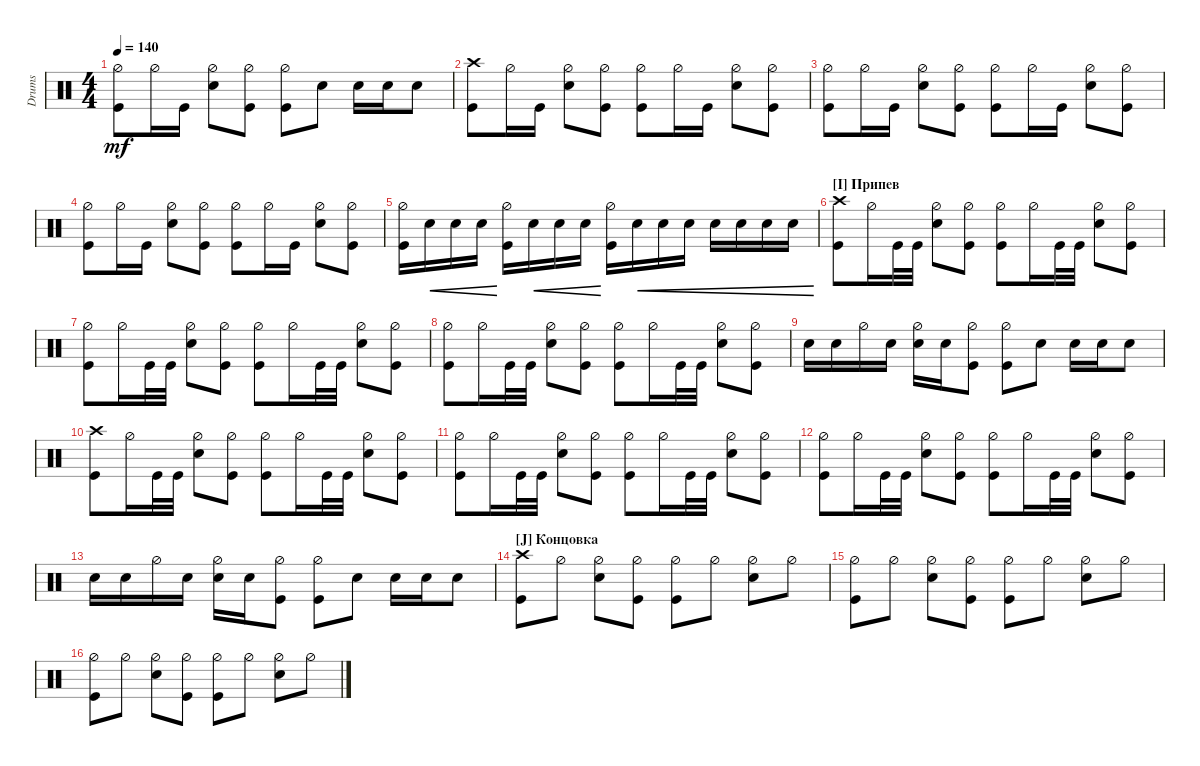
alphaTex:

\track ("Drumkit" "Drums") {instrument percussion}
\staff {score}
\articulation defaults
\ts (4 4)
\tempo 140
\clef neutral
\ks c
("Kick (hit)" "Hi-Hat (half)").8{dy mf} "Hi-Hat (half)".16 "Kick (hit)".16 ("Snare (hit) 2" "Hi-Hat (half)").8 ("Kick (hit)" "Hi-Hat (half)").8 ("Kick (hit)" "Hi-Hat (half)").8 "Snare (hit) 2".8 "Snare (hit) 2".16 "Snare (hit) 2".16 "Snare (hit) 2".8 |
("Kick (hit)" "Crash high (hit)").8 "Hi-Hat (half)".16 "Kick (hit)".16 ("Snare (hit) 2" "Hi-Hat (half)").8 ("Kick (hit)" "Hi-Hat (half)").8 ("Kick (hit)" "Hi-Hat (half)").8 "Hi-Hat (half)".16 "Kick (hit)".16 ("Hi-Hat (half)" "Snare (hit) 2").8 ("Hi-Hat (half)" "Kick (hit)").8 |
("Kick (hit)" "Hi-Hat (half)").8 "Hi-Hat (half)".16 "Kick (hit)".16 ("Snare (hit) 2" "Hi-Hat (half)").8 ("Kick (hit)" "Hi-Hat (half)").8 ("Kick (hit)" "Hi-Hat (half)").8 "Hi-Hat (half)".16 "Kick (hit)".16 ("Hi-Hat (half)" "Snare (hit) 2").8 ("Hi-Hat (half)" "Kick (hit)").8 |
("Kick (hit)" "Hi-Hat (half)").8 "Hi-Hat (half)".16 "Kick (hit)".16 ("Snare (hit) 2" "Hi-Hat (half)").8 ("Kick (hit)" "Hi-Hat (half)").8 ("Kick (hit)" "Hi-Hat (half)").8 "Hi-Hat (half)".16 "Kick (hit)".16 ("Hi-Hat (half)" "Snare (hit) 2").8 ("Hi-Hat (half)" "Kick (hit)").8 |
("Kick (hit)" "Hi-Hat (half)").16 "Snare (hit) 2".16{cre} "Snare (hit) 2".16{cre} "Snare (hit) 2".16{cre} ("Kick (hit)" "Hi-Hat (half)").16 "Snare (hit) 2".16{cre} "Snare (hit) 2".16{cre} "Snare (hit) 2".16{cre} ("Kick (hit)" "Hi-Hat (half)").16 "Snare (hit) 2".16{cre} "Snare (hit) 2".16{cre} "Snare (hit) 2".16{cre} "Snare (hit) 2".16{cre} "Snare (hit) 2".16{cre} "Snare (hit) 2".16{cre} "Snare (hit) 2".16{cre} |
\section ("I" "Припев")
("Kick (hit)" "Crash high (hit)").8 "Hi-Hat (half)".16 "Kick (hit)".32 "Kick (hit)".32 ("Hi-Hat (half)" "Snare (hit) 2").8 ("Kick (hit)" "Hi-Hat (half)").8 ("Kick (hit)" "Hi-Hat (half)").8 "Hi-Hat (half)".16 "Kick (hit)".32 "Kick (hit)".32 ("Hi-Hat (half)" "Snare (hit) 2").8 ("Hi-Hat (half)" "Kick (hit)").8 |
("Kick (hit)" "Hi-Hat (half)").8 "Hi-Hat (half)".16 "Kick (hit)".32 "Kick (hit)".32 ("Hi-Hat (half)" "Snare (hit) 2").8 ("Kick (hit)" "Hi-Hat (half)").8 ("Kick (hit)" "Hi-Hat (half)").8 "Hi-Hat (half)".16 "Kick (hit)".32 "Kick (hit)".32 ("Hi-Hat (half)" "Snare (hit) 2").8 ("Hi-Hat (half)" "Kick (hit)").8 |
("Kick (hit)" "Hi-Hat (half)").8 "Hi-Hat (half)".16 "Kick (hit)".32 "Kick (hit)".32 ("Hi-Hat (half)" "Snare (hit) 2").8 ("Kick (hit)" "Hi-Hat (half)").8 ("Kick (hit)" "Hi-Hat (half)").8 "Hi-Hat (half)".16 "Kick (hit)".32 "Kick (hit)".32 ("Hi-Hat (half)" "Snare (hit) 2").8 ("Hi-Hat (half)" "Kick (hit)").8 |
"Snare (hit) 2".16 "Snare (hit) 2".16 "Hi-Hat (half)".16 "Snare (hit) 2".16 ("Hi-Hat (half)" "Snare (hit) 2").16 "Snare (hit) 2".16 ("Kick (hit)" "Hi-Hat (half)").8 ("Kick (hit)" "Hi-Hat (half)").8 "Snare (hit) 2".8 "Snare (hit) 2".16 "Snare (hit) 2".16 "Snare (hit) 2".8 |
("Kick (hit)" "Crash high (hit)").8 "Hi-Hat (half)".16 "Kick (hit)".32 "Kick (hit)".32 ("Hi-Hat (half)" "Snare (hit) 2").8 ("Kick (hit)" "Hi-Hat (half)").8 ("Kick (hit)" "Hi-Hat (half)").8 "Hi-Hat (half)".16 "Kick (hit)".32 "Kick (hit)".32 ("Hi-Hat (half)" "Snare (hit) 2").8 ("Hi-Hat (half)" "Kick (hit)").8 |
("Kick (hit)" "Hi-Hat (half)").8 "Hi-Hat (half)".16 "Kick (hit)".32 "Kick (hit)".32 ("Hi-Hat (half)" "Snare (hit) 2").8 ("Kick (hit)" "Hi-Hat (half)").8 ("Kick (hit)" "Hi-Hat (half)").8 "Hi-Hat (half)".16 "Kick (hit)".32 "Kick (hit)".32 ("Hi-Hat (half)" "Snare (hit) 2").8 ("Hi-Hat (half)" "Kick (hit)").8 |
("Kick (hit)" "Hi-Hat (half)").8 "Hi-Hat (half)".16 "Kick (hit)".32 "Kick (hit)".32 ("Hi-Hat (half)" "Snare (hit) 2").8 ("Kick (hit)" "Hi-Hat (half)").8 ("Kick (hit)" "Hi-Hat (half)").8 "Hi-Hat (half)".16 "Kick (hit)".32 "Kick (hit)".32 ("Hi-Hat (half)" "Snare (hit) 2").8 ("Hi-Hat (half)" "Kick (hit)").8 |
"Snare (hit) 2".16 "Snare (hit) 2".16 "Hi-Hat (half)".16 "Snare (hit) 2".16 ("Hi-Hat (half)" "Snare (hit) 2").16 "Snare (hit) 2".16 ("Kick (hit)" "Hi-Hat (half)").8 ("Kick (hit)" "Hi-Hat (half)").8 "Snare (hit) 2".8 "Snare (hit) 2".16 "Snare (hit) 2".16 "Snare (hit) 2".8 |
\section ("J" "Концовка")
("Kick (hit)" "Crash high (hit)").8 "Hi-Hat (half)".8 ("Snare (hit) 2" "Hi-Hat (half)").8 ("Kick (hit)" "Hi-Hat (half)").8 ("Kick (hit)" "Hi-Hat (half)").8 "Hi-Hat (half)".8 ("Snare (hit) 2" "Hi-Hat (half)").8 "Hi-Hat (half)".8 |
("Kick (hit)" "Hi-Hat (half)").8 "Hi-Hat (half)".8 ("Snare (hit) 2" "Hi-Hat (half)").8 ("Kick (hit)" "Hi-Hat (half)").8 ("Kick (hit)" "Hi-Hat (half)").8 "Hi-Hat (half)".8 ("Snare (hit) 2" "Hi-Hat (half)").8 "Hi-Hat (half)".8 |
("Kick (hit)" "Hi-Hat (half)").8 "Hi-Hat (half)".8 ("Snare (hit) 2" "Hi-Hat (half)").8 ("Kick (hit)" "Hi-Hat (half)").8 ("Kick (hit)" "Hi-Hat (half)").8 "Hi-Hat (half)".8 ("Snare (hit) 2" "Hi-Hat (half)").8 "Hi-Hat (half)".8
